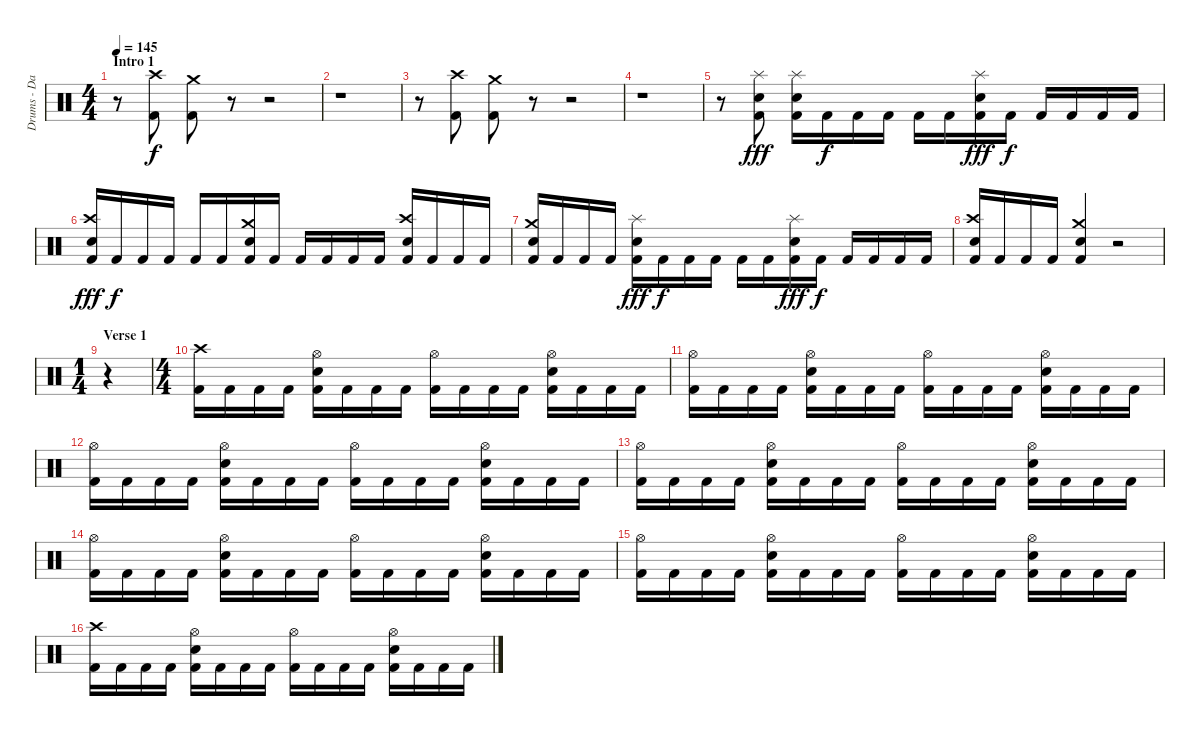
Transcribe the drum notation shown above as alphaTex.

\track ("Drums - Daniel Zimmermann" "Drums - Da") {instrument percussion}
\staff {score}
\articulation defaults
\ts (4 4)
\section ("" "Intro 1")
\tempo 145
\clef neutral
\ks c
r.8{dy f} ("Kick (hit) 2" "Crash high (hit)").8 ("Kick (hit) 2" "Crash medium (hit)").8 r.8 r.2 |
r.1 |
r.8 ("Kick (hit) 2" "Crash high (hit)").8 ("Kick (hit) 2" "Crash medium (hit)").8 r.8 r.2 |
r.1 |
r.8 ("Kick (hit) 2" "Electric Snare (hit)" "Splash (hit)").8{dy fff} ("Kick (hit) 2" "Electric Snare (hit)" "Splash (hit)").16 "Kick (hit) 2".16{dy f} "Kick (hit) 2".16 "Kick (hit) 2".16 "Kick (hit) 2".16 "Kick (hit) 2".16 ("Kick (hit) 2" "Electric Snare (hit)" "Splash (hit)").16{dy fff} "Kick (hit) 2".16{dy f} "Kick (hit) 2".16 "Kick (hit) 2".16 "Kick (hit) 2".16 "Kick (hit) 2".16 |
("Kick (hit) 2" "Electric Snare (hit)" "Crash high (hit)").16{dy fff} "Kick (hit) 2".16{dy f} "Kick (hit) 2".16 "Kick (hit) 2".16 "Kick (hit) 2".16 "Kick (hit) 2".16 ("Kick (hit) 2" "Electric Snare (hit)" "Crash medium (hit)").16 "Kick (hit) 2".16 "Kick (hit) 2".16 "Kick (hit) 2".16 "Kick (hit) 2".16 "Kick (hit) 2".16 ("Kick (hit) 2" "Electric Snare (hit)" "Crash high (hit)").16 "Kick (hit) 2".16 "Kick (hit) 2".16 "Kick (hit) 2".16 |
("Kick (hit) 2" "Electric Snare (hit)" "Crash medium (hit)").16 "Kick (hit) 2".16 "Kick (hit) 2".16 "Kick (hit) 2".16 ("Kick (hit) 2" "Electric Snare (hit)" "Splash (hit)").16{dy fff} "Kick (hit) 2".16{dy f} "Kick (hit) 2".16 "Kick (hit) 2".16 "Kick (hit) 2".16 "Kick (hit) 2".16 ("Kick (hit) 2" "Electric Snare (hit)" "Splash (hit)").16{dy fff} "Kick (hit) 2".16{dy f} "Kick (hit) 2".16 "Kick (hit) 2".16 "Kick (hit) 2".16 "Kick (hit) 2".16 |
("Kick (hit) 2" "Electric Snare (hit)" "Crash high (hit)").16 "Kick (hit) 2".16 "Kick (hit) 2".16 "Kick (hit) 2".16 ("Kick (hit) 2" "Electric Snare (hit)" "Crash medium (hit)").4 r.2 |
\ts (1 4)
\section ("" "Verse 1")
r.4 |
\ts (4 4)
("Kick (hit) 2" "Crash high (hit)").16 "Kick (hit) 2".16 "Kick (hit) 2".16 "Kick (hit) 2".16 ("Kick (hit) 2" "Electric Snare (hit)" "Hi-Hat (open)").16 "Kick (hit) 2".16 "Kick (hit) 2".16 "Kick (hit) 2".16 ("Kick (hit) 2" "Hi-Hat (open)").16 "Kick (hit) 2".16 "Kick (hit) 2".16 "Kick (hit) 2".16 ("Kick (hit) 2" "Electric Snare (hit)" "Hi-Hat (open)").16 "Kick (hit) 2".16 "Kick (hit) 2".16 "Kick (hit) 2".16 |
("Kick (hit) 2" "Hi-Hat (open)").16 "Kick (hit) 2".16 "Kick (hit) 2".16 "Kick (hit) 2".16 ("Kick (hit) 2" "Electric Snare (hit)" "Hi-Hat (open)").16 "Kick (hit) 2".16 "Kick (hit) 2".16 "Kick (hit) 2".16 ("Kick (hit) 2" "Hi-Hat (open)").16 "Kick (hit) 2".16 "Kick (hit) 2".16 "Kick (hit) 2".16 ("Kick (hit) 2" "Electric Snare (hit)" "Hi-Hat (open)").16 "Kick (hit) 2".16 "Kick (hit) 2".16 "Kick (hit) 2".16 |
("Kick (hit) 2" "Hi-Hat (open)").16 "Kick (hit) 2".16 "Kick (hit) 2".16 "Kick (hit) 2".16 ("Kick (hit) 2" "Electric Snare (hit)" "Hi-Hat (open)").16 "Kick (hit) 2".16 "Kick (hit) 2".16 "Kick (hit) 2".16 ("Kick (hit) 2" "Hi-Hat (open)").16 "Kick (hit) 2".16 "Kick (hit) 2".16 "Kick (hit) 2".16 ("Kick (hit) 2" "Electric Snare (hit)" "Hi-Hat (open)").16 "Kick (hit) 2".16 "Kick (hit) 2".16 "Kick (hit) 2".16 |
("Kick (hit) 2" "Hi-Hat (open)").16 "Kick (hit) 2".16 "Kick (hit) 2".16 "Kick (hit) 2".16 ("Kick (hit) 2" "Electric Snare (hit)" "Hi-Hat (open)").16 "Kick (hit) 2".16 "Kick (hit) 2".16 "Kick (hit) 2".16 ("Kick (hit) 2" "Hi-Hat (open)").16 "Kick (hit) 2".16 "Kick (hit) 2".16 "Kick (hit) 2".16 ("Kick (hit) 2" "Electric Snare (hit)" "Hi-Hat (open)").16 "Kick (hit) 2".16 "Kick (hit) 2".16 "Kick (hit) 2".16 |
("Kick (hit) 2" "Hi-Hat (open)").16 "Kick (hit) 2".16 "Kick (hit) 2".16 "Kick (hit) 2".16 ("Kick (hit) 2" "Electric Snare (hit)" "Hi-Hat (open)").16 "Kick (hit) 2".16 "Kick (hit) 2".16 "Kick (hit) 2".16 ("Kick (hit) 2" "Hi-Hat (open)").16 "Kick (hit) 2".16 "Kick (hit) 2".16 "Kick (hit) 2".16 ("Kick (hit) 2" "Electric Snare (hit)" "Hi-Hat (open)").16 "Kick (hit) 2".16 "Kick (hit) 2".16 "Kick (hit) 2".16 |
("Kick (hit) 2" "Hi-Hat (open)").16 "Kick (hit) 2".16 "Kick (hit) 2".16 "Kick (hit) 2".16 ("Kick (hit) 2" "Electric Snare (hit)" "Hi-Hat (open)").16 "Kick (hit) 2".16 "Kick (hit) 2".16 "Kick (hit) 2".16 ("Kick (hit) 2" "Hi-Hat (open)").16 "Kick (hit) 2".16 "Kick (hit) 2".16 "Kick (hit) 2".16 ("Kick (hit) 2" "Electric Snare (hit)" "Hi-Hat (open)").16 "Kick (hit) 2".16 "Kick (hit) 2".16 "Kick (hit) 2".16 |
("Kick (hit) 2" "Crash high (hit)").16 "Kick (hit) 2".16 "Kick (hit) 2".16 "Kick (hit) 2".16 ("Kick (hit) 2" "Electric Snare (hit)" "Hi-Hat (open)").16 "Kick (hit) 2".16 "Kick (hit) 2".16 "Kick (hit) 2".16 ("Kick (hit) 2" "Hi-Hat (open)").16 "Kick (hit) 2".16 "Kick (hit) 2".16 "Kick (hit) 2".16 ("Kick (hit) 2" "Electric Snare (hit)" "Hi-Hat (open)").16 "Kick (hit) 2".16 "Kick (hit) 2".16 "Kick (hit) 2".16
